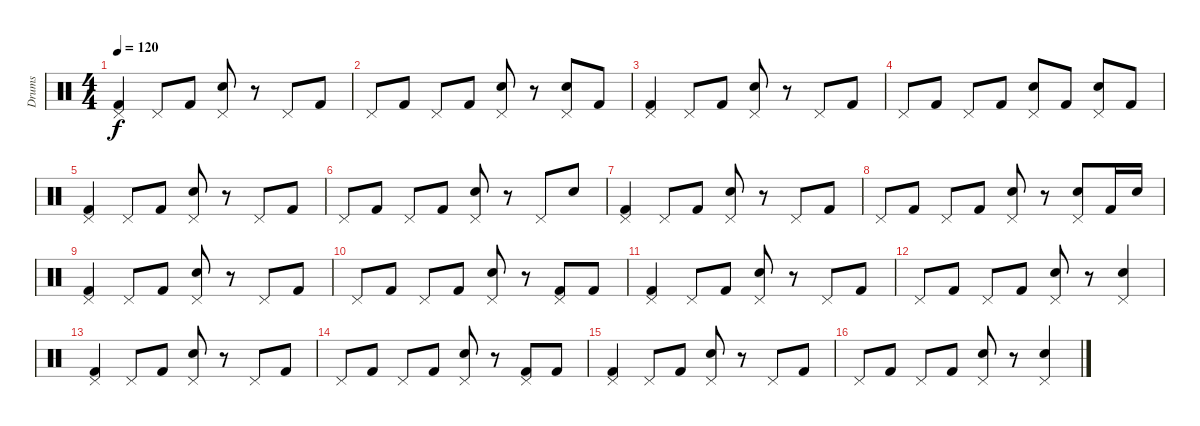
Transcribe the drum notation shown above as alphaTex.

\track ("Drums" "Drums") {instrument percussion}
\staff {score}
\articulation defaults
\ts (4 4)
\tempo 120
\clef neutral
\ks c
("Pedal Hi-Hat (hit)" "Kick (hit) 2").4{dy f} "Pedal Hi-Hat (hit)".8 "Kick (hit) 2".8 ("Electric Snare (hit)" "Pedal Hi-Hat (hit)").8 r.8 "Pedal Hi-Hat (hit)".8 "Kick (hit) 2".8 |
"Pedal Hi-Hat (hit)".8 "Kick (hit) 2".8 "Pedal Hi-Hat (hit)".8 "Kick (hit) 2".8 ("Electric Snare (hit)" "Pedal Hi-Hat (hit)").8 r.8 ("Electric Snare (hit)" "Pedal Hi-Hat (hit)").8 "Kick (hit) 2".8 |
("Pedal Hi-Hat (hit)" "Kick (hit) 2").4 "Pedal Hi-Hat (hit)".8 "Kick (hit) 2".8 ("Electric Snare (hit)" "Pedal Hi-Hat (hit)").8 r.8 "Pedal Hi-Hat (hit)".8 "Kick (hit) 2".8 |
"Pedal Hi-Hat (hit)".8 "Kick (hit) 2".8 "Pedal Hi-Hat (hit)".8 "Kick (hit) 2".8 ("Electric Snare (hit)" "Pedal Hi-Hat (hit)").8 "Kick (hit) 2".8 ("Electric Snare (hit)" "Pedal Hi-Hat (hit)").8 "Kick (hit) 2".8 |
("Pedal Hi-Hat (hit)" "Kick (hit) 2").4 "Pedal Hi-Hat (hit)".8 "Kick (hit) 2".8 ("Electric Snare (hit)" "Pedal Hi-Hat (hit)").8 r.8 "Pedal Hi-Hat (hit)".8 "Kick (hit) 2".8 |
"Pedal Hi-Hat (hit)".8 "Kick (hit) 2".8 "Pedal Hi-Hat (hit)".8 "Kick (hit) 2".8 ("Electric Snare (hit)" "Pedal Hi-Hat (hit)").8 r.8 "Pedal Hi-Hat (hit)".8 "Electric Snare (hit)".8 |
("Pedal Hi-Hat (hit)" "Kick (hit) 2").4 "Pedal Hi-Hat (hit)".8 "Kick (hit) 2".8 ("Electric Snare (hit)" "Pedal Hi-Hat (hit)").8 r.8 "Pedal Hi-Hat (hit)".8 "Kick (hit) 2".8 |
"Pedal Hi-Hat (hit)".8 "Kick (hit) 2".8 "Pedal Hi-Hat (hit)".8 "Kick (hit) 2".8 ("Electric Snare (hit)" "Pedal Hi-Hat (hit)").8 r.8 ("Electric Snare (hit)" "Pedal Hi-Hat (hit)").8 "Kick (hit) 2".16 "Electric Snare (hit)".16 |
("Pedal Hi-Hat (hit)" "Kick (hit) 2").4 "Pedal Hi-Hat (hit)".8 "Kick (hit) 2".8 ("Electric Snare (hit)" "Pedal Hi-Hat (hit)").8 r.8 "Pedal Hi-Hat (hit)".8 "Kick (hit) 2".8 |
"Pedal Hi-Hat (hit)".8 "Kick (hit) 2".8 "Pedal Hi-Hat (hit)".8 "Kick (hit) 2".8 ("Electric Snare (hit)" "Pedal Hi-Hat (hit)").8 r.8 ("Pedal Hi-Hat (hit)" "Kick (hit) 2").8 "Kick (hit) 2".8 |
("Pedal Hi-Hat (hit)" "Kick (hit) 2").4 "Pedal Hi-Hat (hit)".8 "Kick (hit) 2".8 ("Electric Snare (hit)" "Pedal Hi-Hat (hit)").8 r.8 "Pedal Hi-Hat (hit)".8 "Kick (hit) 2".8 |
"Pedal Hi-Hat (hit)".8 "Kick (hit) 2".8 "Pedal Hi-Hat (hit)".8 "Kick (hit) 2".8 ("Electric Snare (hit)" "Pedal Hi-Hat (hit)").8 r.8 ("Electric Snare (hit)" "Pedal Hi-Hat (hit)").4 |
("Pedal Hi-Hat (hit)" "Kick (hit) 2").4 "Pedal Hi-Hat (hit)".8 "Kick (hit) 2".8 ("Electric Snare (hit)" "Pedal Hi-Hat (hit)").8 r.8 "Pedal Hi-Hat (hit)".8 "Kick (hit) 2".8 |
"Pedal Hi-Hat (hit)".8 "Kick (hit) 2".8 "Pedal Hi-Hat (hit)".8 "Kick (hit) 2".8 ("Electric Snare (hit)" "Pedal Hi-Hat (hit)").8 r.8 ("Pedal Hi-Hat (hit)" "Kick (hit) 2").8 "Kick (hit) 2".8 |
("Pedal Hi-Hat (hit)" "Kick (hit) 2").4 "Pedal Hi-Hat (hit)".8 "Kick (hit) 2".8 ("Electric Snare (hit)" "Pedal Hi-Hat (hit)").8 r.8 "Pedal Hi-Hat (hit)".8 "Kick (hit) 2".8 |
"Pedal Hi-Hat (hit)".8 "Kick (hit) 2".8 "Pedal Hi-Hat (hit)".8 "Kick (hit) 2".8 ("Electric Snare (hit)" "Pedal Hi-Hat (hit)").8 r.8 ("Electric Snare (hit)" "Pedal Hi-Hat (hit)").4
